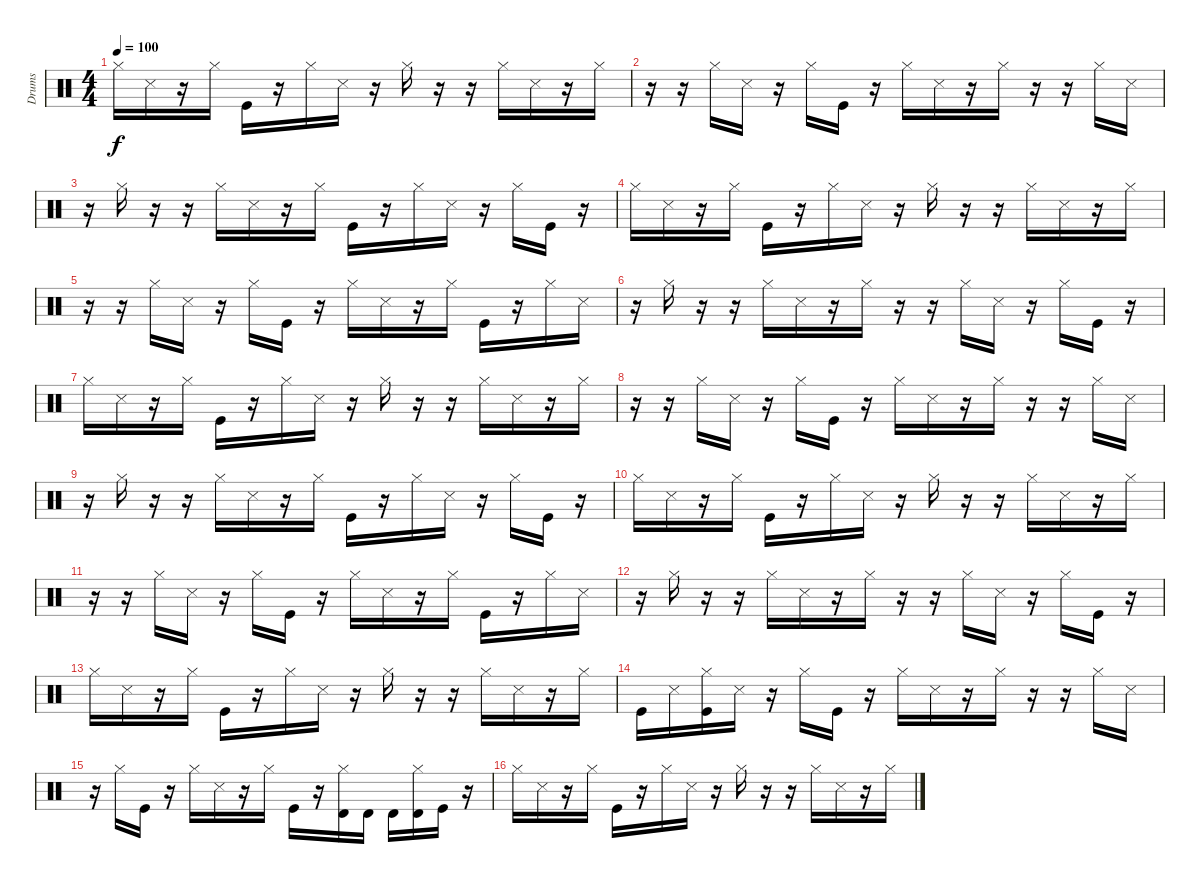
\track ("Drums" "Drums") {instrument percussion}
\staff {score}
\articulation defaults
\ts (4 4)
\tempo 100
\clef neutral
\ks c "Hi-Hat (closed)".16{dy f} "Snare (side stick) 3".16
r.16 "Hi-Hat (closed)".16 "Kick (hit)".16 r.16 "Hi-Hat (closed)".16 "Snare (side stick) 3".16 r.16 "Hi-Hat (closed)".16 r.16 r.16 "Hi-Hat (closed)".16 "Snare (side stick) 3".16 r.16 "Hi-Hat (closed)".16 |
r.16 r.16 "Hi-Hat (closed)".16 "Snare (side stick) 3".16 r.16 "Hi-Hat (closed)".16 "Kick (hit)".16 r.16 "Hi-Hat (closed)".16 "Snare (side stick) 3".16 r.16 "Hi-Hat (closed)".16 r.16 r.16 "Hi-Hat (closed)".16 "Snare (side stick) 3".16 |
r.16 "Hi-Hat (closed)".16 r.16 r.16 "Hi-Hat (closed)".16 "Snare (side stick) 3".16 r.16 "Hi-Hat (closed)".16 "Kick (hit)".16 r.16 "Hi-Hat (closed)".16 "Snare (side stick) 3".16 r.16 "Hi-Hat (closed)".16 "Kick (hit)".16 r.16 |
"Hi-Hat (closed)".16 "Snare (side stick) 3".16 r.16 "Hi-Hat (closed)".16 "Kick (hit)".16 r.16 "Hi-Hat (closed)".16 "Snare (side stick) 3".16 r.16 "Hi-Hat (closed)".16 r.16 r.16 "Hi-Hat (closed)".16 "Snare (side stick) 3".16 r.16 "Hi-Hat (closed)".16 |
r.16 r.16 "Hi-Hat (closed)".16 "Snare (side stick) 3".16 r.16 "Hi-Hat (closed)".16 "Kick (hit)".16 r.16 "Hi-Hat (closed)".16 "Snare (side stick) 3".16 r.16 "Hi-Hat (closed)".16 "Kick (hit)".16 r.16 "Hi-Hat (closed)".16 "Snare (side stick) 3".16 |
r.16 "Hi-Hat (closed)".16 r.16 r.16 "Hi-Hat (closed)".16 "Snare (side stick) 3".16 r.16 "Hi-Hat (closed)".16 r.16 r.16 "Hi-Hat (closed)".16 "Snare (side stick) 3".16 r.16 "Hi-Hat (closed)".16 "Kick (hit)".16 r.16 |
"Hi-Hat (closed)".16 "Snare (side stick) 3".16 r.16 "Hi-Hat (closed)".16 "Kick (hit)".16 r.16 "Hi-Hat (closed)".16 "Snare (side stick) 3".16 r.16 "Hi-Hat (closed)".16 r.16 r.16 "Hi-Hat (closed)".16 "Snare (side stick) 3".16 r.16 "Hi-Hat (closed)".16 |
r.16 r.16 "Hi-Hat (closed)".16 "Snare (side stick) 3".16 r.16 "Hi-Hat (closed)".16 "Kick (hit)".16 r.16 "Hi-Hat (closed)".16 "Snare (side stick) 3".16 r.16 "Hi-Hat (closed)".16 r.16 r.16 "Hi-Hat (closed)".16 "Snare (side stick) 3".16 |
r.16 "Hi-Hat (closed)".16 r.16 r.16 "Hi-Hat (closed)".16 "Snare (side stick) 3".16 r.16 "Hi-Hat (closed)".16 "Kick (hit)".16 r.16 "Hi-Hat (closed)".16 "Snare (side stick) 3".16 r.16 "Hi-Hat (closed)".16 "Kick (hit)".16 r.16 |
"Hi-Hat (closed)".16 "Snare (side stick) 3".16 r.16 "Hi-Hat (closed)".16 "Kick (hit)".16 r.16 "Hi-Hat (closed)".16 "Snare (side stick) 3".16 r.16 "Hi-Hat (closed)".16 r.16 r.16 "Hi-Hat (closed)".16 "Snare (side stick) 3".16 r.16 "Hi-Hat (closed)".16 |
r.16 r.16 "Hi-Hat (closed)".16 "Snare (side stick) 3".16 r.16 "Hi-Hat (closed)".16 "Kick (hit)".16 r.16 "Hi-Hat (closed)".16 "Snare (side stick) 3".16 r.16 "Hi-Hat (closed)".16 "Kick (hit)".16 r.16 "Hi-Hat (closed)".16 "Snare (side stick) 3".16 |
r.16 "Hi-Hat (closed)".16 r.16 r.16 "Hi-Hat (closed)".16 "Snare (side stick) 3".16 r.16 "Hi-Hat (closed)".16 r.16 r.16 "Hi-Hat (closed)".16 "Snare (side stick) 3".16 r.16 "Hi-Hat (closed)".16 "Kick (hit)".16 r.16 |
"Hi-Hat (closed)".16 "Snare (side stick) 3".16 r.16 "Hi-Hat (closed)".16 "Kick (hit)".16 r.16 "Hi-Hat (closed)".16 "Snare (side stick) 3".16 r.16 "Hi-Hat (closed)".16 r.16 r.16 "Hi-Hat (closed)".16 "Snare (side stick) 3".16 r.16 "Hi-Hat (closed)".16 |
"Kick (hit)".16 "Snare (side stick) 3".16 ("Hi-Hat (closed)" "Kick (hit)").16 "Snare (side stick) 3".16 r.16 "Hi-Hat (closed)".16 "Kick (hit)".16 r.16 "Hi-Hat (closed)".16 "Snare (side stick) 3".16 r.16 "Hi-Hat (closed)".16 r.16 r.16 "Hi-Hat (closed)".16 "Snare (side stick) 3".16 |
r.16 "Hi-Hat (closed)".16 "Kick (hit)".16 r.16 "Hi-Hat (closed)".16 "Snare (side stick) 3".16 r.16 "Hi-Hat (closed)".16 "Kick (hit)".16 r.16 ("Hi-Hat (closed)" "Timbale high (hit)").16 "Timbale high (hit)".16 "Timbale high (hit)".16 ("Hi-Hat (closed)" "Timbale high (hit)").16 "Kick (hit)".16 r.16 |
"Hi-Hat (closed)".16 "Snare (side stick) 3".16 r.16 "Hi-Hat (closed)".16 "Kick (hit)".16 r.16 "Hi-Hat (closed)".16 "Snare (side stick) 3".16 r.16 "Hi-Hat (closed)".16 r.16 r.16 "Hi-Hat (closed)".16 "Snare (side stick) 3".16 r.16 "Hi-Hat (closed)".16
